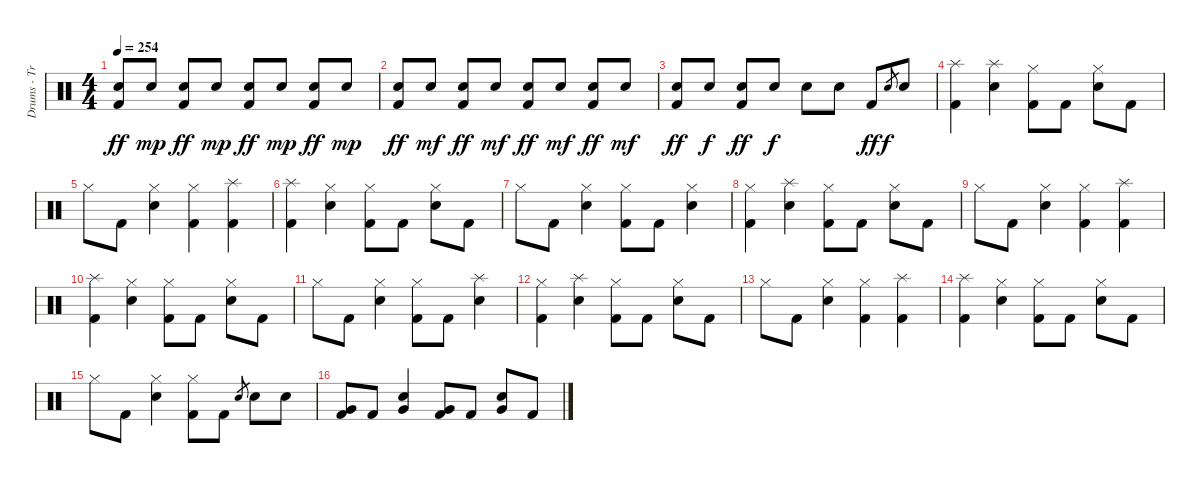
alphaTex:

\track ("Drums - Travis Barker" "Drums - Tr") {instrument percussion}
\staff {score}
\articulation defaults
\ts (4 4)
\tempo 254
\clef neutral
\ks c
("Electric Snare (hit)" "Kick (hit) 2").8{dy ff} "Electric Snare (hit)".8{dy mp} ("Electric Snare (hit)" "Kick (hit) 2").8{dy ff} "Electric Snare (hit)".8{dy mp} ("Electric Snare (hit)" "Kick (hit) 2").8{dy ff} "Electric Snare (hit)".8{dy mp} ("Electric Snare (hit)" "Kick (hit) 2").8{dy ff} "Electric Snare (hit)".8{dy mp} |
("Electric Snare (hit)" "Kick (hit) 2").8{dy ff} "Electric Snare (hit)".8{dy mf} ("Electric Snare (hit)" "Kick (hit) 2").8{dy ff} "Electric Snare (hit)".8{dy mf} ("Electric Snare (hit)" "Kick (hit) 2").8{dy ff} "Electric Snare (hit)".8{dy mf} ("Electric Snare (hit)" "Kick (hit) 2").8{dy ff} "Electric Snare (hit)".8{dy mf} |
("Electric Snare (hit)" "Kick (hit) 2").8{dy ff} "Electric Snare (hit)".8{dy f} ("Electric Snare (hit)" "Kick (hit) 2").8{dy ff} "Electric Snare (hit)".8{dy f} "Electric Snare (hit)".8 "Electric Snare (hit)".8 "Kick (hit) 2".8{dy ff} "Electric Snare (hit)".8{gr dy f} "Electric Snare (hit)".8 |
("Splash (hit)" "Kick (hit) 2").4 ("Splash (hit)" "Electric Snare (hit)").4 ("Hi-Hat (closed)" "Kick (hit) 2").8 "Kick (hit) 2".8 ("Hi-Hat (closed)" "Electric Snare (hit)").8 "Kick (hit) 2".8 |
"Hi-Hat (closed)".8 "Kick (hit) 2".8 ("Hi-Hat (closed)" "Electric Snare (hit)").4 ("Hi-Hat (closed)" "Kick (hit) 2").4 ("Splash (hit)" "Kick (hit) 2").4 |
("Splash (hit)" "Kick (hit) 2").4 ("Hi-Hat (closed)" "Electric Snare (hit)").4 ("Hi-Hat (closed)" "Kick (hit) 2").8 "Kick (hit) 2".8 ("Hi-Hat (closed)" "Electric Snare (hit)").8 "Kick (hit) 2".8 |
"Hi-Hat (closed)".8 "Kick (hit) 2".8 ("Hi-Hat (closed)" "Electric Snare (hit)").4 ("Hi-Hat (closed)" "Kick (hit) 2").8 "Kick (hit) 2".8 ("Hi-Hat (closed)" "Electric Snare (hit)").4 |
("Hi-Hat (closed)" "Kick (hit) 2").4 ("Splash (hit)" "Electric Snare (hit)").4 ("Hi-Hat (closed)" "Kick (hit) 2").8 "Kick (hit) 2".8 ("Hi-Hat (closed)" "Electric Snare (hit)").8 "Kick (hit) 2".8 |
"Hi-Hat (closed)".8 "Kick (hit) 2".8 ("Hi-Hat (closed)" "Electric Snare (hit)").4 ("Hi-Hat (closed)" "Kick (hit) 2").4 ("Splash (hit)" "Kick (hit) 2").4 |
("Splash (hit)" "Kick (hit) 2").4 ("Hi-Hat (closed)" "Electric Snare (hit)").4 ("Hi-Hat (closed)" "Kick (hit) 2").8 "Kick (hit) 2".8 ("Hi-Hat (closed)" "Electric Snare (hit)").8 "Kick (hit) 2".8 |
"Hi-Hat (closed)".8 "Kick (hit) 2".8 ("Hi-Hat (closed)" "Electric Snare (hit)").4 ("Hi-Hat (closed)" "Kick (hit) 2").8 "Kick (hit) 2".8 ("Splash (hit)" "Electric Snare (hit)").4 |
("Hi-Hat (closed)" "Kick (hit) 2").4 ("Splash (hit)" "Electric Snare (hit)").4 ("Hi-Hat (closed)" "Kick (hit) 2").8 "Kick (hit) 2".8 ("Hi-Hat (closed)" "Electric Snare (hit)").8 "Kick (hit) 2".8 |
"Hi-Hat (closed)".8 "Kick (hit) 2".8 ("Hi-Hat (closed)" "Electric Snare (hit)").4 ("Hi-Hat (closed)" "Kick (hit) 2").4 ("Splash (hit)" "Kick (hit) 2").4 |
("Splash (hit)" "Kick (hit) 2").4 ("Hi-Hat (closed)" "Electric Snare (hit)").4 ("Hi-Hat (closed)" "Kick (hit) 2").8 "Kick (hit) 2".8 ("Hi-Hat (closed)" "Electric Snare (hit)").8 "Kick (hit) 2".8 |
"Hi-Hat (closed)".8 "Kick (hit) 2".8 ("Hi-Hat (closed)" "Electric Snare (hit)").4 ("Hi-Hat (closed)" "Kick (hit) 2").8 "Kick (hit) 2".8 "Electric Snare (hit)".8{gr} "Electric Snare (hit)".8 "Electric Snare (hit)".8 |
("Very Low Tom (hit)" "Kick (hit) 2").8 "Kick (hit) 2".8 ("Very Low Tom (hit)" "Electric Snare (hit)").4 ("Very Low Tom (hit)" "Kick (hit) 2").8 "Kick (hit) 2".8 ("Very Low Tom (hit)" "Electric Snare (hit)").8 "Kick (hit) 2".8
